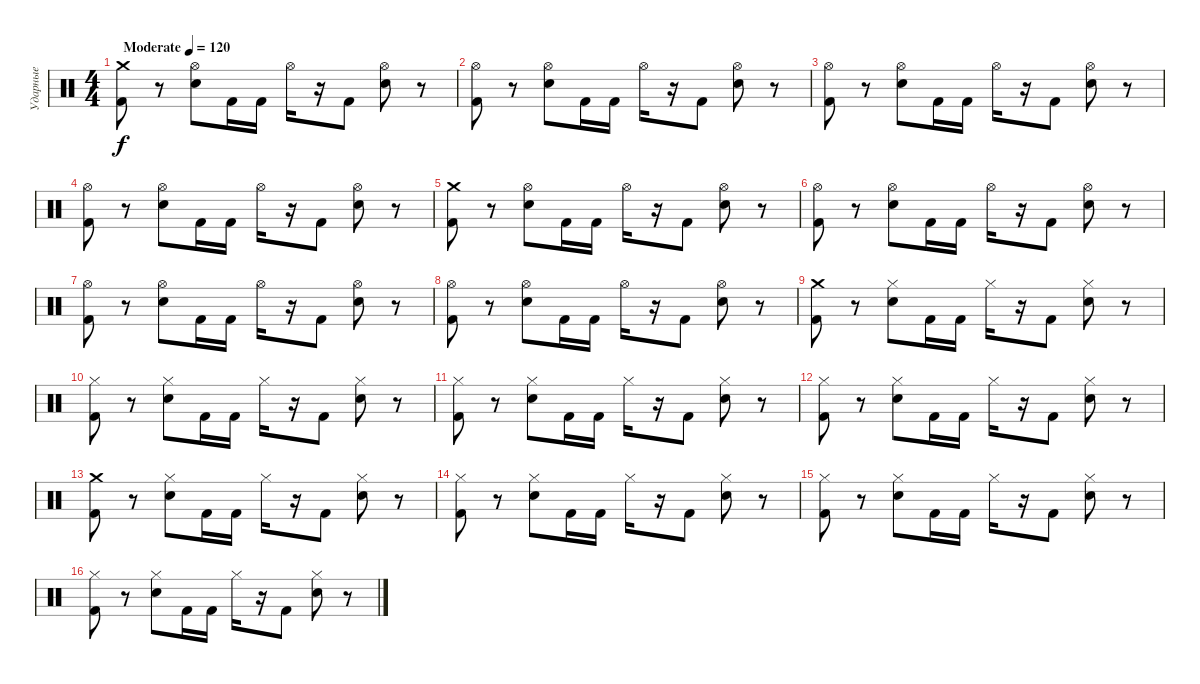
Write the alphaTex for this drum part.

\track ("Ударные" "Ударные") {instrument percussion}
\staff {score}
\articulation defaults
\ts (4 4)
\tempo (120 "Moderate")
\clef neutral
\ks c
("Crash medium (hit)" "Kick (hit) 2").8{dy f} r.8 ("Hi-Hat (open)" "Snare (hit) 2").8 "Kick (hit) 2".16 "Kick (hit) 2".16 "Hi-Hat (open)".16 r.16 "Kick (hit) 2".8 ("Hi-Hat (open)" "Snare (hit) 2").8 r.8 |
("Hi-Hat (open)" "Kick (hit) 2").8 r.8 ("Hi-Hat (open)" "Snare (hit) 2").8 "Kick (hit) 2".16 "Kick (hit) 2".16 "Hi-Hat (open)".16 r.16 "Kick (hit) 2".8 ("Hi-Hat (open)" "Snare (hit) 2").8 r.8 |
("Hi-Hat (open)" "Kick (hit) 2").8 r.8 ("Hi-Hat (open)" "Snare (hit) 2").8 "Kick (hit) 2".16 "Kick (hit) 2".16 "Hi-Hat (open)".16 r.16 "Kick (hit) 2".8 ("Hi-Hat (open)" "Snare (hit) 2").8 r.8 |
("Hi-Hat (open)" "Kick (hit) 2").8 r.8 ("Hi-Hat (open)" "Snare (hit) 2").8 "Kick (hit) 2".16 "Kick (hit) 2".16 "Hi-Hat (open)".16 r.16 "Kick (hit) 2".8 ("Hi-Hat (open)" "Snare (hit) 2").8 r.8 |
("Crash medium (hit)" "Kick (hit) 2").8 r.8 ("Hi-Hat (open)" "Snare (hit) 2").8 "Kick (hit) 2".16 "Kick (hit) 2".16 "Hi-Hat (open)".16 r.16 "Kick (hit) 2".8 ("Hi-Hat (open)" "Snare (hit) 2").8 r.8 |
("Hi-Hat (open)" "Kick (hit) 2").8 r.8 ("Hi-Hat (open)" "Snare (hit) 2").8 "Kick (hit) 2".16 "Kick (hit) 2".16 "Hi-Hat (open)".16 r.16 "Kick (hit) 2".8 ("Hi-Hat (open)" "Snare (hit) 2").8 r.8 |
("Hi-Hat (open)" "Kick (hit) 2").8 r.8 ("Hi-Hat (open)" "Snare (hit) 2").8 "Kick (hit) 2".16 "Kick (hit) 2".16 "Hi-Hat (open)".16 r.16 "Kick (hit) 2".8 ("Hi-Hat (open)" "Snare (hit) 2").8 r.8 |
("Hi-Hat (open)" "Kick (hit) 2").8 r.8 ("Hi-Hat (open)" "Snare (hit) 2").8 "Kick (hit) 2".16 "Kick (hit) 2".16 "Hi-Hat (open)".16 r.16 "Kick (hit) 2".8 ("Hi-Hat (open)" "Snare (hit) 2").8 r.8 |
("Crash medium (hit)" "Kick (hit) 2").8 r.8 ("Hi-Hat (closed)" "Snare (hit) 2").8 "Kick (hit) 2".16 "Kick (hit) 2".16 "Hi-Hat (closed)".16 r.16 "Kick (hit) 2".8 ("Hi-Hat (closed)" "Snare (hit) 2").8 r.8 |
("Hi-Hat (closed)" "Kick (hit) 2").8 r.8 ("Hi-Hat (closed)" "Snare (hit) 2").8 "Kick (hit) 2".16 "Kick (hit) 2".16 "Hi-Hat (closed)".16 r.16 "Kick (hit) 2".8 ("Hi-Hat (closed)" "Snare (hit) 2").8 r.8 |
("Hi-Hat (closed)" "Kick (hit) 2").8 r.8 ("Hi-Hat (closed)" "Snare (hit) 2").8 "Kick (hit) 2".16 "Kick (hit) 2".16 "Hi-Hat (closed)".16 r.16 "Kick (hit) 2".8 ("Hi-Hat (closed)" "Snare (hit) 2").8 r.8 |
("Hi-Hat (closed)" "Kick (hit) 2").8 r.8 ("Hi-Hat (closed)" "Snare (hit) 2").8 "Kick (hit) 2".16 "Kick (hit) 2".16 "Hi-Hat (closed)".16 r.16 "Kick (hit) 2".8 ("Hi-Hat (closed)" "Snare (hit) 2").8 r.8 |
("Crash medium (hit)" "Kick (hit) 2").8 r.8 ("Hi-Hat (closed)" "Snare (hit) 2").8 "Kick (hit) 2".16 "Kick (hit) 2".16 "Hi-Hat (closed)".16 r.16 "Kick (hit) 2".8 ("Hi-Hat (closed)" "Snare (hit) 2").8 r.8 |
("Hi-Hat (closed)" "Kick (hit) 2").8 r.8 ("Hi-Hat (closed)" "Snare (hit) 2").8 "Kick (hit) 2".16 "Kick (hit) 2".16 "Hi-Hat (closed)".16 r.16 "Kick (hit) 2".8 ("Hi-Hat (closed)" "Snare (hit) 2").8 r.8 |
("Hi-Hat (closed)" "Kick (hit) 2").8 r.8 ("Hi-Hat (closed)" "Snare (hit) 2").8 "Kick (hit) 2".16 "Kick (hit) 2".16 "Hi-Hat (closed)".16 r.16 "Kick (hit) 2".8 ("Hi-Hat (closed)" "Snare (hit) 2").8 r.8 |
("Hi-Hat (closed)" "Kick (hit) 2").8 r.8 ("Hi-Hat (closed)" "Snare (hit) 2").8 "Kick (hit) 2".16 "Kick (hit) 2".16 "Hi-Hat (closed)".16 r.16 "Kick (hit) 2".8 ("Hi-Hat (closed)" "Snare (hit) 2").8 r.8
